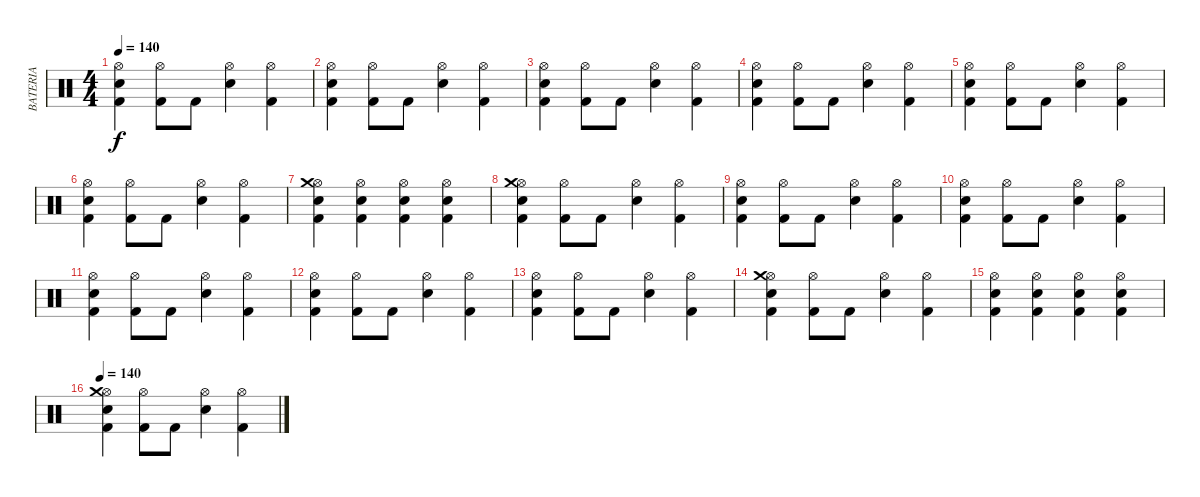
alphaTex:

\track ("BATERIA" "BATERIA") {instrument percussion}
\staff {score}
\articulation defaults
\ts (4 4)
\tempo 140
\clef neutral
\ks c
("Kick (hit) 2" "Electric Snare (hit)" "Hi-Hat (open)").4{dy f} ("Kick (hit) 2" "Hi-Hat (open)").8 "Kick (hit) 2".8 ("Electric Snare (hit)" "Hi-Hat (open)").4 ("Kick (hit) 2" "Hi-Hat (open)").4 |
("Kick (hit) 2" "Electric Snare (hit)" "Hi-Hat (open)").4 ("Kick (hit) 2" "Hi-Hat (open)").8 "Kick (hit) 2".8 ("Electric Snare (hit)" "Hi-Hat (open)").4 ("Kick (hit) 2" "Hi-Hat (open)").4 |
("Kick (hit) 2" "Electric Snare (hit)" "Hi-Hat (open)").4 ("Kick (hit) 2" "Hi-Hat (open)").8 "Kick (hit) 2".8 ("Electric Snare (hit)" "Hi-Hat (open)").4 ("Kick (hit) 2" "Hi-Hat (open)").4 |
("Kick (hit) 2" "Electric Snare (hit)" "Hi-Hat (open)").4 ("Kick (hit) 2" "Hi-Hat (open)").8 "Kick (hit) 2".8 ("Electric Snare (hit)" "Hi-Hat (open)").4 ("Kick (hit) 2" "Hi-Hat (open)").4 |
("Kick (hit) 2" "Electric Snare (hit)" "Hi-Hat (open)").4 ("Kick (hit) 2" "Hi-Hat (open)").8 "Kick (hit) 2".8 ("Electric Snare (hit)" "Hi-Hat (open)").4 ("Kick (hit) 2" "Hi-Hat (open)").4 |
("Kick (hit) 2" "Electric Snare (hit)" "Hi-Hat (open)").4 ("Kick (hit) 2" "Hi-Hat (open)").8 "Kick (hit) 2".8 ("Electric Snare (hit)" "Hi-Hat (open)").4 ("Kick (hit) 2" "Hi-Hat (open)").4 |
("Kick (hit) 2" "Electric Snare (hit)" "Hi-Hat (open)" "Crash medium (hit)").4 ("Kick (hit) 2" "Electric Snare (hit)" "Hi-Hat (open)").4 ("Kick (hit) 2" "Electric Snare (hit)" "Hi-Hat (open)").4 ("Kick (hit) 2" "Electric Snare (hit)" "Hi-Hat (open)").4 |
("Kick (hit) 2" "Electric Snare (hit)" "Hi-Hat (open)" "Crash medium (hit)").4 ("Kick (hit) 2" "Hi-Hat (open)").8 "Kick (hit) 2".8 ("Electric Snare (hit)" "Hi-Hat (open)").4 ("Kick (hit) 2" "Hi-Hat (open)").4 |
("Kick (hit) 2" "Electric Snare (hit)" "Hi-Hat (open)").4 ("Kick (hit) 2" "Hi-Hat (open)").8 "Kick (hit) 2".8 ("Electric Snare (hit)" "Hi-Hat (open)").4 ("Kick (hit) 2" "Hi-Hat (open)").4 |
("Kick (hit) 2" "Electric Snare (hit)" "Hi-Hat (open)").4 ("Kick (hit) 2" "Hi-Hat (open)").8 "Kick (hit) 2".8 ("Electric Snare (hit)" "Hi-Hat (open)").4 ("Kick (hit) 2" "Hi-Hat (open)").4 |
("Kick (hit) 2" "Electric Snare (hit)" "Hi-Hat (open)").4 ("Kick (hit) 2" "Hi-Hat (open)").8 "Kick (hit) 2".8 ("Electric Snare (hit)" "Hi-Hat (open)").4 ("Kick (hit) 2" "Hi-Hat (open)").4 |
("Kick (hit) 2" "Electric Snare (hit)" "Hi-Hat (open)").4 ("Kick (hit) 2" "Hi-Hat (open)").8 "Kick (hit) 2".8 ("Electric Snare (hit)" "Hi-Hat (open)").4 ("Kick (hit) 2" "Hi-Hat (open)").4 |
("Kick (hit) 2" "Electric Snare (hit)" "Hi-Hat (open)").4 ("Kick (hit) 2" "Hi-Hat (open)").8 "Kick (hit) 2".8 ("Electric Snare (hit)" "Hi-Hat (open)").4 ("Kick (hit) 2" "Hi-Hat (open)").4 |
("Kick (hit) 2" "Electric Snare (hit)" "Hi-Hat (open)" "Crash medium (hit)").4 ("Kick (hit) 2" "Hi-Hat (open)").8 "Kick (hit) 2".8 ("Electric Snare (hit)" "Hi-Hat (open)").4 ("Kick (hit) 2" "Hi-Hat (open)").4 |
("Kick (hit) 2" "Electric Snare (hit)" "Hi-Hat (open)").4 ("Kick (hit) 2" "Electric Snare (hit)" "Hi-Hat (open)").4 ("Kick (hit) 2" "Electric Snare (hit)" "Hi-Hat (open)").4 ("Kick (hit) 2" "Electric Snare (hit)" "Hi-Hat (open)").4 |
\tempo 140
("Kick (hit) 2" "Electric Snare (hit)" "Hi-Hat (open)" "Crash medium (hit)").4 ("Kick (hit) 2" "Hi-Hat (open)").8 "Kick (hit) 2".8 ("Electric Snare (hit)" "Hi-Hat (open)").4 ("Kick (hit) 2" "Hi-Hat (open)").4
